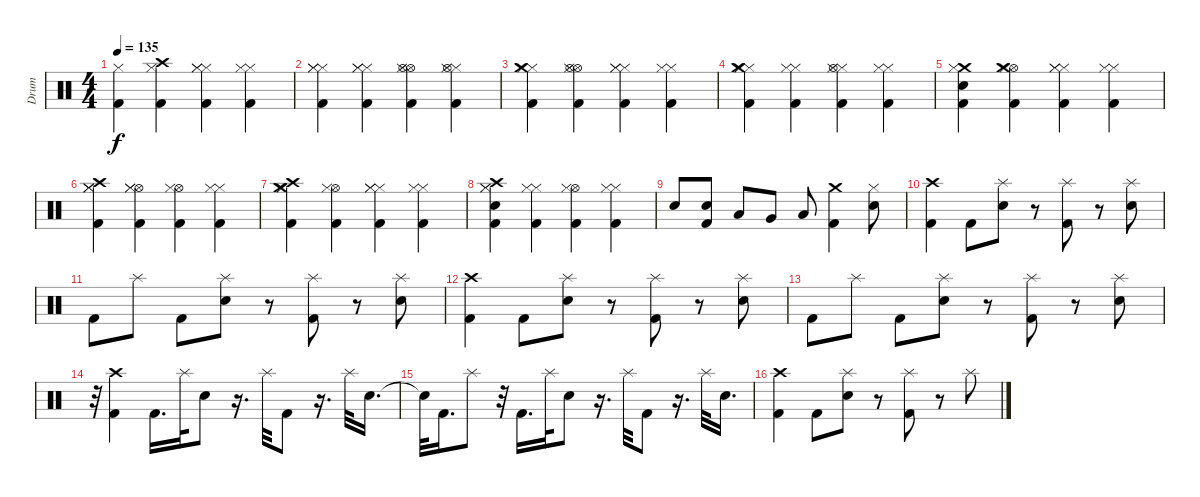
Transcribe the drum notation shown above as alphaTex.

\track ("Drum" "Drum") {instrument percussion}
\staff {score}
\articulation defaults
\ts (4 4)
\tempo 135
\clef neutral
\ks c
("Hi-Hat (closed)" "Kick (hit) 2").4{dy f} ("Crash high (hit)" "Kick (hit) 2" "Hi-Hat (closed)").4 ("Hi-Hat (closed)" "Kick (hit) 2" "Hi-Hat (closed)" "Hi-Hat (closed)").4 ("Hi-Hat (closed)" "Kick (hit) 2" "Hi-Hat (closed)").4 |
("Hi-Hat (closed)" "Kick (hit) 2" "Hi-Hat (closed)" "Hi-Hat (closed)").4 ("Hi-Hat (closed)" "Kick (hit) 2" "Hi-Hat (closed)" "Hi-Hat (closed)").4 ("Hi-Hat (open)" "Kick (hit) 2" "Hi-Hat (open)" "Hi-Hat (closed)").4 ("Hi-Hat (closed)" "Kick (hit) 2" "Hi-Hat (open)" "Hi-Hat (closed)").4 |
("Hi-Hat (closed)" "Kick (hit) 2" "Crash medium (hit)" "Hi-Hat (closed)").4 ("Hi-Hat (open)" "Kick (hit) 2" "Hi-Hat (open)" "Hi-Hat (closed)").4 ("Hi-Hat (closed)" "Kick (hit) 2" "Hi-Hat (closed)" "Hi-Hat (closed)").4 ("Hi-Hat (closed)" "Kick (hit) 2" "Hi-Hat (closed)").4 |
("Hi-Hat (closed)" "Kick (hit) 2" "Crash medium (hit)" "Hi-Hat (closed)" "Hi-Hat (closed)").4 ("Kick (hit) 2" "Hi-Hat (closed)" "Hi-Hat (closed)").4 ("Hi-Hat (closed)" "Kick (hit) 2" "Hi-Hat (open)" "Hi-Hat (closed)").4 ("Hi-Hat (closed)" "Kick (hit) 2" "Hi-Hat (closed)").4 |
("Snare (hit)" "Kick (hit) 2" "Crash medium (hit)" "Hi-Hat (closed)").4 ("Hi-Hat (open)" "Kick (hit) 2" "Crash medium (hit)" "Hi-Hat (closed)").4 ("Hi-Hat (closed)" "Kick (hit) 2" "Hi-Hat (closed)" "Hi-Hat (closed)").4 ("Hi-Hat (closed)" "Kick (hit) 2" "Hi-Hat (closed)").4 |
("Hi-Hat (closed)" "Kick (hit) 2" "Crash high (hit)" "Hi-Hat (closed)" "Hi-Hat (closed)").4 ("Hi-Hat (open)" "Kick (hit) 2" "Hi-Hat (closed)" "Hi-Hat (closed)").4 ("Kick (hit) 2" "Hi-Hat (open)" "Hi-Hat (closed)").4 ("Hi-Hat (closed)" "Kick (hit) 2" "Hi-Hat (closed)").4 |
("Kick (hit) 2" "Crash high (hit)" "Hi-Hat (closed)" "Crash medium (hit)" "Hi-Hat (closed)").4 ("Hi-Hat (open)" "Kick (hit) 2" "Hi-Hat (closed)").4 ("Hi-Hat (closed)" "Kick (hit) 2" "Hi-Hat (closed)" "Hi-Hat (closed)").4 ("Hi-Hat (closed)" "Kick (hit) 2" "Hi-Hat (closed)").4 |
("Hi-Hat (closed)" "Kick (hit) 2" "Crash high (hit)" "Hi-Hat (closed)" "Snare (hit) 2").4 ("Kick (hit) 2" "Hi-Hat (closed)" "Hi-Hat (closed)").4 ("Kick (hit) 2" "Hi-Hat (open)" "Hi-Hat (closed)").4 ("Hi-Hat (closed)" "Kick (hit) 2" "Hi-Hat (closed)").4 |
"Electric Snare (hit)".8 ("Electric Snare (hit)" "Kick (hit) 2").8 "Low Tom (hit)".8 "Very Low Tom (hit)".8 "Low Floor Tom (hit)".8 ("Kick (hit) 2" "Crash medium (hit)").4 ("Hi-Hat (closed)" "Electric Snare (hit)").8 |
("Crash high (hit)" "Kick (hit) 2").4 "Kick (hit) 2".8 ("Splash (hit)" "Electric Snare (hit)").8 r.8 ("Splash (hit)" "Kick (hit) 2").8 r.8 ("Splash (hit)" "Electric Snare (hit)").8 |
"Kick (hit) 2".8 "Splash (hit)".8 "Kick (hit) 2".8 ("Splash (hit)" "Electric Snare (hit)").8 r.8 ("Splash (hit)" "Kick (hit) 2").8 r.8 ("Splash (hit)" "Electric Snare (hit)").8 |
("Crash high (hit)" "Kick (hit) 2").4 "Kick (hit) 2".8 ("Splash (hit)" "Electric Snare (hit)").8 r.8 ("Splash (hit)" "Kick (hit) 2").8 r.8 ("Splash (hit)" "Electric Snare (hit)").8 |
"Kick (hit) 2".8 "Splash (hit)".8 "Kick (hit) 2".8 ("Splash (hit)" "Electric Snare (hit)").8 r.8 ("Splash (hit)" "Kick (hit) 2").8 r.8 ("Splash (hit)" "Electric Snare (hit)").8 |
r.32 ("Crash high (hit)" "Kick (hit) 2").4 "Kick (hit) 2".16{d} "Splash (hit)".32 "Electric Snare (hit)".8 r.16{d} "Splash (hit)".32 "Kick (hit) 2".8 r.16{d} "Splash (hit)".32 "Electric Snare (hit)".16{d} |
"Snare (hit)"{t}.32 "Kick (hit) 2".16{d} "Splash (hit)".8 r.32 "Kick (hit) 2".16{d} "Splash (hit)".32 "Electric Snare (hit)".8 r.16{d} "Splash (hit)".32 "Kick (hit) 2".8 r.16{d} "Splash (hit)".32 "Electric Snare (hit)".16{d} |
("Crash high (hit)" "Kick (hit) 2").4 "Kick (hit) 2".8 ("Splash (hit)" "Electric Snare (hit)").8 r.8 ("Splash (hit)" "Kick (hit) 2").8 r.8 "Splash (hit)".8
